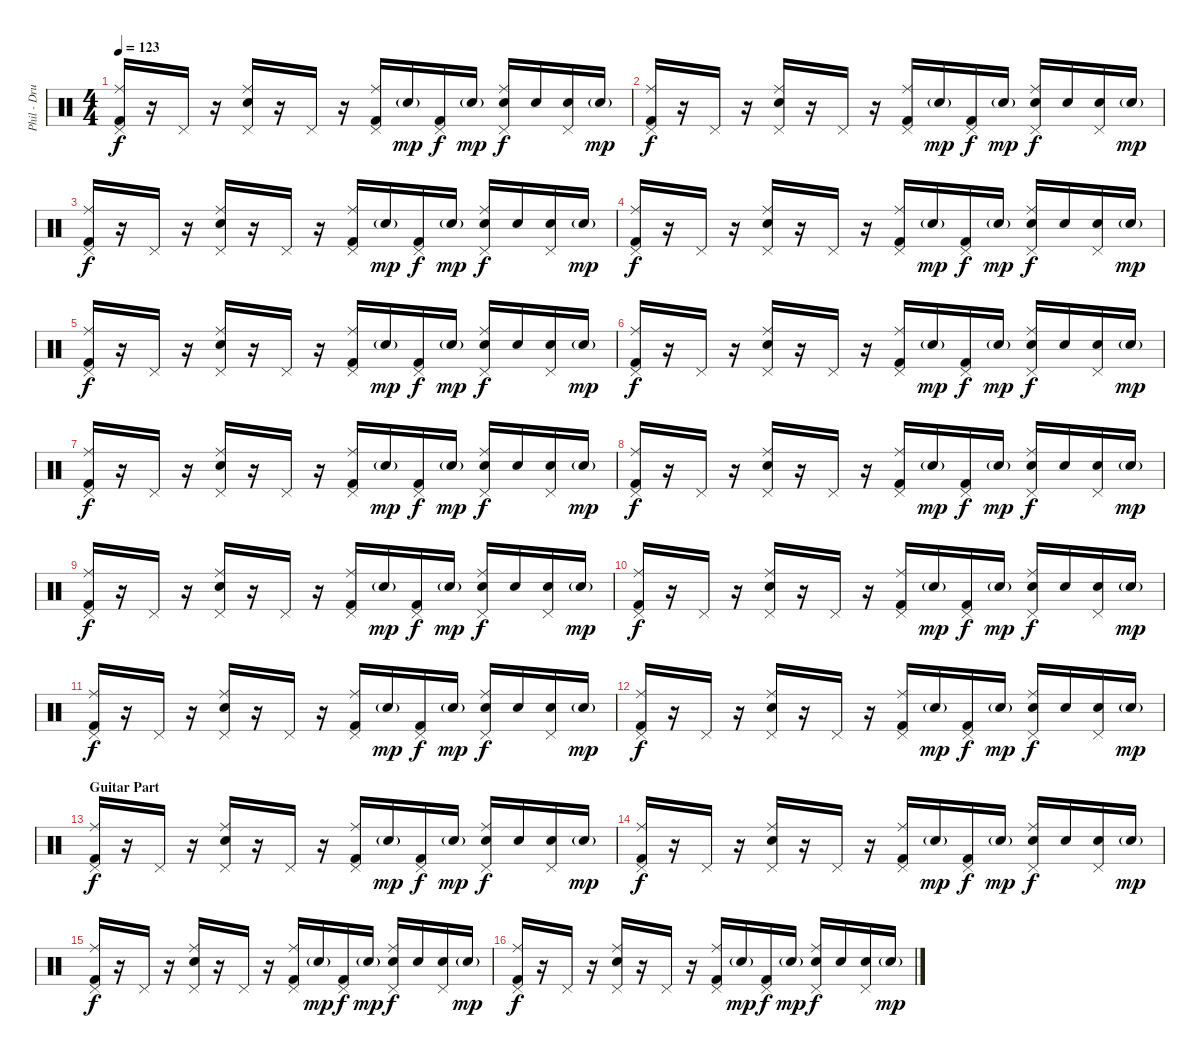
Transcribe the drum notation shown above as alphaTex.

\track ("Phil - Drums" "Phil - Dru") {instrument percussion}
\staff {score}
\articulation defaults
\ts (4 4)
\tempo 123
\clef neutral
\ks c
("Ride (middle)" "Kick (hit) 2" "Pedal Hi-Hat (hit)").16{dy f} r.16 "Pedal Hi-Hat (hit)".16 r.16 ("Ride (middle)" "Snare (hit) 2" "Pedal Hi-Hat (hit)").16 r.16 "Pedal Hi-Hat (hit)".16 r.16 ("Ride (middle)" "Kick (hit) 2" "Pedal Hi-Hat (hit)").16 "Snare (hit) 2"{g}.16{dy mp} ("Kick (hit) 2" "Pedal Hi-Hat (hit)").16{dy f} "Snare (hit) 2"{g}.16{dy mp} ("Ride (middle)" "Snare (hit) 2" "Pedal Hi-Hat (hit)").16{dy f} "Snare (hit) 2".16 ("Snare (hit) 2" "Pedal Hi-Hat (hit)").16 "Snare (hit) 2"{g}.16{dy mp} |
("Ride (middle)" "Kick (hit) 2" "Pedal Hi-Hat (hit)").16{dy f} r.16 "Pedal Hi-Hat (hit)".16 r.16 ("Ride (middle)" "Snare (hit) 2" "Pedal Hi-Hat (hit)").16 r.16 "Pedal Hi-Hat (hit)".16 r.16 ("Ride (middle)" "Kick (hit) 2" "Pedal Hi-Hat (hit)").16 "Snare (hit) 2"{g}.16{dy mp} ("Kick (hit) 2" "Pedal Hi-Hat (hit)").16{dy f} "Snare (hit) 2"{g}.16{dy mp} ("Ride (middle)" "Snare (hit) 2" "Pedal Hi-Hat (hit)").16{dy f} "Snare (hit) 2".16 ("Snare (hit) 2" "Pedal Hi-Hat (hit)").16 "Snare (hit) 2"{g}.16{dy mp} |
("Ride (middle)" "Kick (hit) 2" "Pedal Hi-Hat (hit)").16{dy f} r.16 "Pedal Hi-Hat (hit)".16 r.16 ("Ride (middle)" "Snare (hit) 2" "Pedal Hi-Hat (hit)").16 r.16 "Pedal Hi-Hat (hit)".16 r.16 ("Ride (middle)" "Kick (hit) 2" "Pedal Hi-Hat (hit)").16 "Snare (hit) 2"{g}.16{dy mp} ("Kick (hit) 2" "Pedal Hi-Hat (hit)").16{dy f} "Snare (hit) 2"{g}.16{dy mp} ("Ride (middle)" "Snare (hit) 2" "Pedal Hi-Hat (hit)").16{dy f} "Snare (hit) 2".16 ("Snare (hit) 2" "Pedal Hi-Hat (hit)").16 "Snare (hit) 2"{g}.16{dy mp} |
("Ride (middle)" "Kick (hit) 2" "Pedal Hi-Hat (hit)").16{dy f} r.16 "Pedal Hi-Hat (hit)".16 r.16 ("Ride (middle)" "Snare (hit) 2" "Pedal Hi-Hat (hit)").16 r.16 "Pedal Hi-Hat (hit)".16 r.16 ("Ride (middle)" "Kick (hit) 2" "Pedal Hi-Hat (hit)").16 "Snare (hit) 2"{g}.16{dy mp} ("Kick (hit) 2" "Pedal Hi-Hat (hit)").16{dy f} "Snare (hit) 2"{g}.16{dy mp} ("Ride (middle)" "Snare (hit) 2" "Pedal Hi-Hat (hit)").16{dy f} "Snare (hit) 2".16 ("Snare (hit) 2" "Pedal Hi-Hat (hit)").16 "Snare (hit) 2"{g}.16{dy mp} |
("Ride (middle)" "Kick (hit) 2" "Pedal Hi-Hat (hit)").16{dy f} r.16 "Pedal Hi-Hat (hit)".16 r.16 ("Ride (middle)" "Snare (hit) 2" "Pedal Hi-Hat (hit)").16 r.16 "Pedal Hi-Hat (hit)".16 r.16 ("Ride (middle)" "Kick (hit) 2" "Pedal Hi-Hat (hit)").16 "Snare (hit) 2"{g}.16{dy mp} ("Kick (hit) 2" "Pedal Hi-Hat (hit)").16{dy f} "Snare (hit) 2"{g}.16{dy mp} ("Ride (middle)" "Snare (hit) 2" "Pedal Hi-Hat (hit)").16{dy f} "Snare (hit) 2".16 ("Snare (hit) 2" "Pedal Hi-Hat (hit)").16 "Snare (hit) 2"{g}.16{dy mp} |
("Ride (middle)" "Kick (hit) 2" "Pedal Hi-Hat (hit)").16{dy f} r.16 "Pedal Hi-Hat (hit)".16 r.16 ("Ride (middle)" "Snare (hit) 2" "Pedal Hi-Hat (hit)").16 r.16 "Pedal Hi-Hat (hit)".16 r.16 ("Ride (middle)" "Kick (hit) 2" "Pedal Hi-Hat (hit)").16 "Snare (hit) 2"{g}.16{dy mp} ("Kick (hit) 2" "Pedal Hi-Hat (hit)").16{dy f} "Snare (hit) 2"{g}.16{dy mp} ("Ride (middle)" "Snare (hit) 2" "Pedal Hi-Hat (hit)").16{dy f} "Snare (hit) 2".16 ("Snare (hit) 2" "Pedal Hi-Hat (hit)").16 "Snare (hit) 2"{g}.16{dy mp} |
("Ride (middle)" "Kick (hit) 2" "Pedal Hi-Hat (hit)").16{dy f} r.16 "Pedal Hi-Hat (hit)".16 r.16 ("Ride (middle)" "Snare (hit) 2" "Pedal Hi-Hat (hit)").16 r.16 "Pedal Hi-Hat (hit)".16 r.16 ("Ride (middle)" "Kick (hit) 2" "Pedal Hi-Hat (hit)").16 "Snare (hit) 2"{g}.16{dy mp} ("Kick (hit) 2" "Pedal Hi-Hat (hit)").16{dy f} "Snare (hit) 2"{g}.16{dy mp} ("Ride (middle)" "Snare (hit) 2" "Pedal Hi-Hat (hit)").16{dy f} "Snare (hit) 2".16 ("Snare (hit) 2" "Pedal Hi-Hat (hit)").16 "Snare (hit) 2"{g}.16{dy mp} |
("Ride (middle)" "Kick (hit) 2" "Pedal Hi-Hat (hit)").16{dy f} r.16 "Pedal Hi-Hat (hit)".16 r.16 ("Ride (middle)" "Snare (hit) 2" "Pedal Hi-Hat (hit)").16 r.16 "Pedal Hi-Hat (hit)".16 r.16 ("Ride (middle)" "Kick (hit) 2" "Pedal Hi-Hat (hit)").16 "Snare (hit) 2"{g}.16{dy mp} ("Kick (hit) 2" "Pedal Hi-Hat (hit)").16{dy f} "Snare (hit) 2"{g}.16{dy mp} ("Ride (middle)" "Snare (hit) 2" "Pedal Hi-Hat (hit)").16{dy f} "Snare (hit) 2".16 ("Snare (hit) 2" "Pedal Hi-Hat (hit)").16 "Snare (hit) 2"{g}.16{dy mp} |
("Ride (middle)" "Kick (hit) 2" "Pedal Hi-Hat (hit)").16{dy f} r.16 "Pedal Hi-Hat (hit)".16 r.16 ("Ride (middle)" "Snare (hit) 2" "Pedal Hi-Hat (hit)").16 r.16 "Pedal Hi-Hat (hit)".16 r.16 ("Ride (middle)" "Kick (hit) 2" "Pedal Hi-Hat (hit)").16 "Snare (hit) 2"{g}.16{dy mp} ("Kick (hit) 2" "Pedal Hi-Hat (hit)").16{dy f} "Snare (hit) 2"{g}.16{dy mp} ("Ride (middle)" "Snare (hit) 2" "Pedal Hi-Hat (hit)").16{dy f} "Snare (hit) 2".16 ("Snare (hit) 2" "Pedal Hi-Hat (hit)").16 "Snare (hit) 2"{g}.16{dy mp} |
("Ride (middle)" "Kick (hit) 2" "Pedal Hi-Hat (hit)").16{dy f} r.16 "Pedal Hi-Hat (hit)".16 r.16 ("Ride (middle)" "Snare (hit) 2" "Pedal Hi-Hat (hit)").16 r.16 "Pedal Hi-Hat (hit)".16 r.16 ("Ride (middle)" "Kick (hit) 2" "Pedal Hi-Hat (hit)").16 "Snare (hit) 2"{g}.16{dy mp} ("Kick (hit) 2" "Pedal Hi-Hat (hit)").16{dy f} "Snare (hit) 2"{g}.16{dy mp} ("Ride (middle)" "Snare (hit) 2" "Pedal Hi-Hat (hit)").16{dy f} "Snare (hit) 2".16 ("Snare (hit) 2" "Pedal Hi-Hat (hit)").16 "Snare (hit) 2"{g}.16{dy mp} |
("Ride (middle)" "Kick (hit) 2" "Pedal Hi-Hat (hit)").16{dy f} r.16 "Pedal Hi-Hat (hit)".16 r.16 ("Ride (middle)" "Snare (hit) 2" "Pedal Hi-Hat (hit)").16 r.16 "Pedal Hi-Hat (hit)".16 r.16 ("Ride (middle)" "Kick (hit) 2" "Pedal Hi-Hat (hit)").16 "Snare (hit) 2"{g}.16{dy mp} ("Kick (hit) 2" "Pedal Hi-Hat (hit)").16{dy f} "Snare (hit) 2"{g}.16{dy mp} ("Ride (middle)" "Snare (hit) 2" "Pedal Hi-Hat (hit)").16{dy f} "Snare (hit) 2".16 ("Snare (hit) 2" "Pedal Hi-Hat (hit)").16 "Snare (hit) 2"{g}.16{dy mp} |
("Ride (middle)" "Kick (hit) 2" "Pedal Hi-Hat (hit)").16{dy f} r.16 "Pedal Hi-Hat (hit)".16 r.16 ("Ride (middle)" "Snare (hit) 2" "Pedal Hi-Hat (hit)").16 r.16 "Pedal Hi-Hat (hit)".16 r.16 ("Ride (middle)" "Kick (hit) 2" "Pedal Hi-Hat (hit)").16 "Snare (hit) 2"{g}.16{dy mp} ("Kick (hit) 2" "Pedal Hi-Hat (hit)").16{dy f} "Snare (hit) 2"{g}.16{dy mp} ("Ride (middle)" "Snare (hit) 2" "Pedal Hi-Hat (hit)").16{dy f} "Snare (hit) 2".16 ("Snare (hit) 2" "Pedal Hi-Hat (hit)").16 "Snare (hit) 2"{g}.16{dy mp} |
\section ("" "Guitar Part")
("Ride (middle)" "Kick (hit) 2" "Pedal Hi-Hat (hit)").16{dy f} r.16 "Pedal Hi-Hat (hit)".16 r.16 ("Ride (middle)" "Snare (hit) 2" "Pedal Hi-Hat (hit)").16 r.16 "Pedal Hi-Hat (hit)".16 r.16 ("Ride (middle)" "Kick (hit) 2" "Pedal Hi-Hat (hit)").16 "Snare (hit) 2"{g}.16{dy mp} ("Kick (hit) 2" "Pedal Hi-Hat (hit)").16{dy f} "Snare (hit) 2"{g}.16{dy mp} ("Ride (middle)" "Snare (hit) 2" "Pedal Hi-Hat (hit)").16{dy f} "Snare (hit) 2".16 ("Snare (hit) 2" "Pedal Hi-Hat (hit)").16 "Snare (hit) 2"{g}.16{dy mp} |
("Ride (middle)" "Kick (hit) 2" "Pedal Hi-Hat (hit)").16{dy f} r.16 "Pedal Hi-Hat (hit)".16 r.16 ("Ride (middle)" "Snare (hit) 2" "Pedal Hi-Hat (hit)").16 r.16 "Pedal Hi-Hat (hit)".16 r.16 ("Ride (middle)" "Kick (hit) 2" "Pedal Hi-Hat (hit)").16 "Snare (hit) 2"{g}.16{dy mp} ("Kick (hit) 2" "Pedal Hi-Hat (hit)").16{dy f} "Snare (hit) 2"{g}.16{dy mp} ("Ride (middle)" "Snare (hit) 2" "Pedal Hi-Hat (hit)").16{dy f} "Snare (hit) 2".16 ("Snare (hit) 2" "Pedal Hi-Hat (hit)").16 "Snare (hit) 2"{g}.16{dy mp} |
("Ride (middle)" "Kick (hit) 2" "Pedal Hi-Hat (hit)").16{dy f} r.16 "Pedal Hi-Hat (hit)".16 r.16 ("Ride (middle)" "Snare (hit) 2" "Pedal Hi-Hat (hit)").16 r.16 "Pedal Hi-Hat (hit)".16 r.16 ("Ride (middle)" "Kick (hit) 2" "Pedal Hi-Hat (hit)").16 "Snare (hit) 2"{g}.16{dy mp} ("Kick (hit) 2" "Pedal Hi-Hat (hit)").16{dy f} "Snare (hit) 2"{g}.16{dy mp} ("Ride (middle)" "Snare (hit) 2" "Pedal Hi-Hat (hit)").16{dy f} "Snare (hit) 2".16 ("Snare (hit) 2" "Pedal Hi-Hat (hit)").16 "Snare (hit) 2"{g}.16{dy mp} |
("Ride (middle)" "Kick (hit) 2" "Pedal Hi-Hat (hit)").16{dy f} r.16 "Pedal Hi-Hat (hit)".16 r.16 ("Ride (middle)" "Snare (hit) 2" "Pedal Hi-Hat (hit)").16 r.16 "Pedal Hi-Hat (hit)".16 r.16 ("Ride (middle)" "Kick (hit) 2" "Pedal Hi-Hat (hit)").16 "Snare (hit) 2"{g}.16{dy mp} ("Kick (hit) 2" "Pedal Hi-Hat (hit)").16{dy f} "Snare (hit) 2"{g}.16{dy mp} ("Ride (middle)" "Snare (hit) 2" "Pedal Hi-Hat (hit)").16{dy f} "Snare (hit) 2".16 ("Snare (hit) 2" "Pedal Hi-Hat (hit)").16 "Snare (hit) 2"{g}.16{dy mp}
